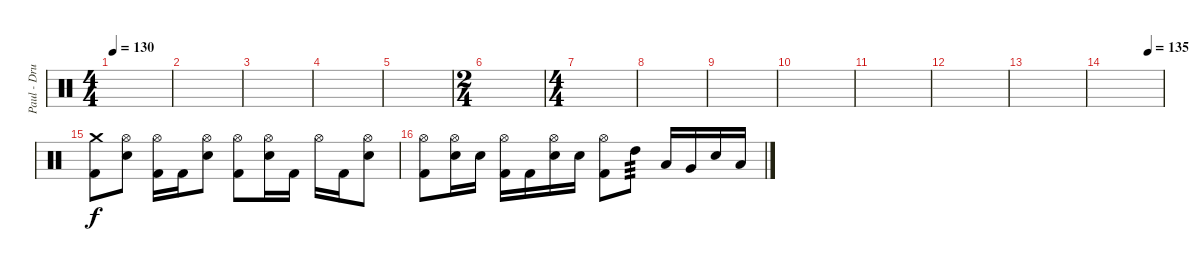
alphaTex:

\track ("Paul - Drums" "Paul - Dru") {instrument percussion}
\staff {score}
\articulation defaults
\ts (4 4)
\tempo 130
\clef neutral
\ks c
|
|
|
|
|
\ts (2 4)
|
\ts (4 4)
|
|
|
|
|
|
|
\tempo (135 0.75)
|
("Crash medium (hit)" "Kick (hit) 2").8 ("Hi-Hat (open)" "Electric Snare (hit)").8 ("Hi-Hat (open)" "Kick (hit) 2").16 "Kick (hit) 2".16 ("Hi-Hat (open)" "Electric Snare (hit)").8 ("Hi-Hat (open)" "Kick (hit) 2").8 ("Hi-Hat (open)" "Electric Snare (hit)").16 "Kick (hit) 2".16 "Hi-Hat (open)".16 "Kick (hit) 2".16 ("Hi-Hat (open)" "Electric Snare (hit)").8 |
("Hi-Hat (open)" "Kick (hit) 2").8 ("Hi-Hat (open)" "Electric Snare (hit)").16 "Electric Snare (hit)".16 ("Hi-Hat (open)" "Kick (hit) 2").16 "Kick (hit) 2".16 ("Hi-Hat (open)" "Electric Snare (hit)").16 "Electric Snare (hit)".16 ("Hi-Hat (open)" "Kick (hit) 2").8 "High Tom (hit)".8{tp 3} "Low Tom (hit)".16 "Very Low Tom (hit)".16 "Electric Snare (hit)".16 "Low Tom (hit)".16
